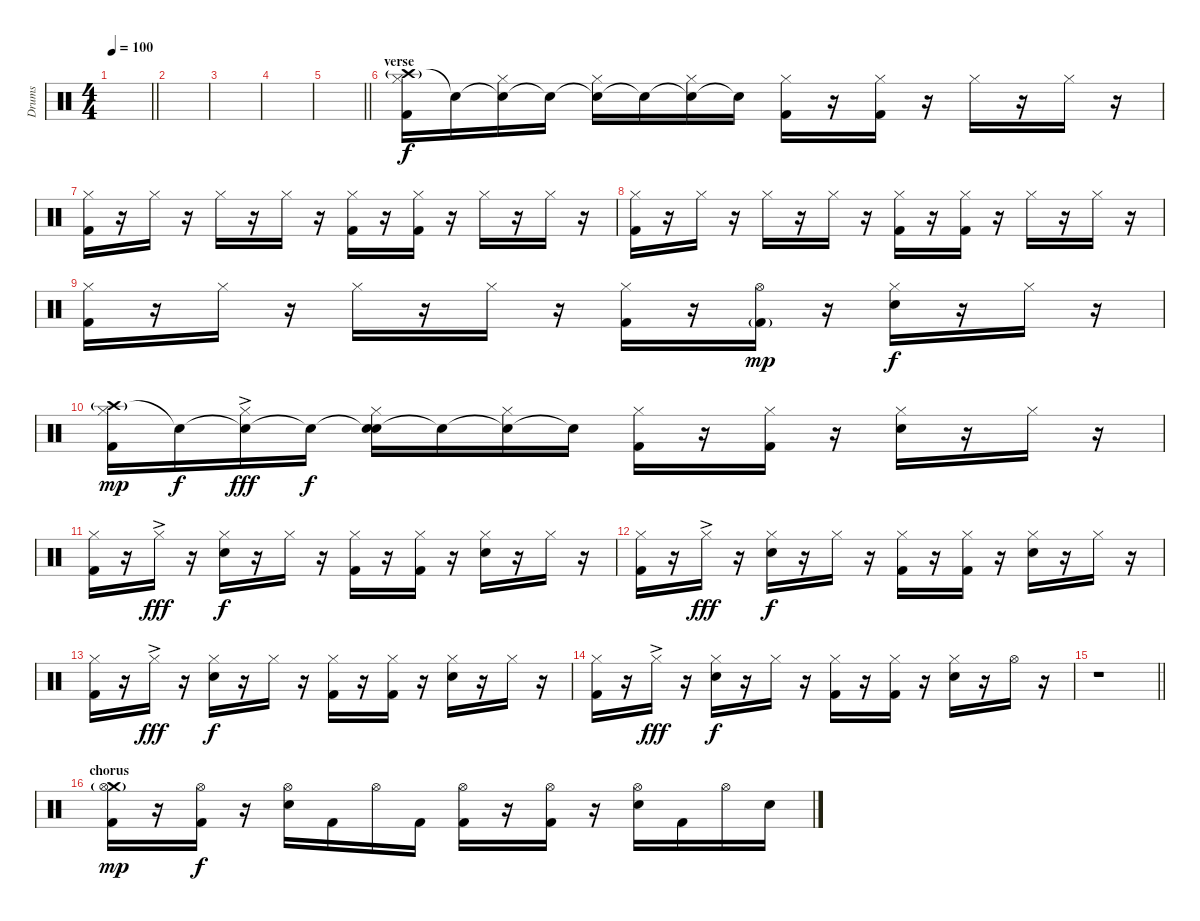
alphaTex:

\track ("Drums" "Drums") {instrument percussion}
\staff {score}
\articulation defaults
\ts (4 4)
\tempo 100
\clef neutral
\barLineRight lightlight
\ks c
|
|
|
|
\barLineRight lightlight
|
\section ("" "verse")
("Crash high (hit)"{g} "Hi-Hat (closed)" "Kick (hit) 2").16 "Snare (hit)"{t}.16{dy f} ("Snare (hit)"{t} "Hi-Hat (closed)").16 "Snare (hit)"{t}.16 ("Snare (hit)"{t} "Hi-Hat (closed)").16 "Snare (hit)"{t}.16 ("Snare (hit)"{t} "Hi-Hat (closed)").16 "Snare (hit)"{t}.16 ("Hi-Hat (closed)" "Kick (hit) 2").16 r.16 ("Hi-Hat (closed)" "Kick (hit) 2").16 r.16 "Hi-Hat (closed)".16 r.16 "Hi-Hat (closed)".16 r.16 |
("Hi-Hat (closed)" "Kick (hit) 2").16 r.16 "Hi-Hat (closed)".16 r.16 "Hi-Hat (closed)".16 r.16 "Hi-Hat (closed)".16 r.16 ("Hi-Hat (closed)" "Kick (hit) 2").16 r.16 ("Hi-Hat (closed)" "Kick (hit) 2").16 r.16 "Hi-Hat (closed)".16 r.16 "Hi-Hat (closed)".16 r.16 |
("Hi-Hat (closed)" "Kick (hit) 2").16 r.16 "Hi-Hat (closed)".16 r.16 "Hi-Hat (closed)".16 r.16 "Hi-Hat (closed)".16 r.16 ("Hi-Hat (closed)" "Kick (hit) 2").16 r.16 ("Hi-Hat (closed)" "Kick (hit) 2").16 r.16 "Hi-Hat (closed)".16 r.16 "Hi-Hat (closed)".16 r.16 |
("Hi-Hat (closed)" "Kick (hit) 2").16 r.16 "Hi-Hat (closed)".16 r.16 "Hi-Hat (closed)".16 r.16 "Hi-Hat (closed)".16 r.16 ("Hi-Hat (closed)" "Kick (hit) 2").16 r.16 ("Hi-Hat (open)" "Kick (hit) 2"{g}).16{dy mp} r.16 ("Hi-Hat (closed)" "Snare (hit) 2").16{dy f} r.16 "Hi-Hat (closed)".16 r.16 |
("Crash high (hit)"{g} "Hi-Hat (closed)" "Kick (hit) 2").16{dy mp} "Snare (hit)"{t}.16{dy f} ("Snare (hit)"{t} "Hi-Hat (closed)"{ac}).16{dy fff} "Snare (hit)"{t}.16{dy f} ("Snare (hit)"{t} "Hi-Hat (closed)" "Snare (hit) 2").16 "Snare (hit)"{t}.16 ("Snare (hit)"{t} "Hi-Hat (closed)").16 "Snare (hit)"{t}.16 ("Hi-Hat (closed)" "Kick (hit) 2").16 r.16 ("Hi-Hat (closed)" "Kick (hit) 2").16 r.16 ("Hi-Hat (closed)" "Snare (hit) 2").16 r.16 "Hi-Hat (closed)".16 r.16 |
("Hi-Hat (closed)" "Kick (hit) 2").16 r.16 "Hi-Hat (closed)"{ac}.16{dy fff} r.16 ("Hi-Hat (closed)" "Snare (hit) 2").16{dy f} r.16 "Hi-Hat (closed)".16 r.16 ("Hi-Hat (closed)" "Kick (hit) 2").16 r.16 ("Hi-Hat (closed)" "Kick (hit) 2").16 r.16 ("Hi-Hat (closed)" "Snare (hit) 2").16 r.16 "Hi-Hat (closed)".16 r.16 |
("Hi-Hat (closed)" "Kick (hit) 2").16 r.16 "Hi-Hat (closed)"{ac}.16{dy fff} r.16 ("Hi-Hat (closed)" "Snare (hit) 2").16{dy f} r.16 "Hi-Hat (closed)".16 r.16 ("Hi-Hat (closed)" "Kick (hit) 2").16 r.16 ("Hi-Hat (closed)" "Kick (hit) 2").16 r.16 ("Hi-Hat (closed)" "Snare (hit) 2").16 r.16 "Hi-Hat (closed)".16 r.16 |
("Hi-Hat (closed)" "Kick (hit) 2").16 r.16 "Hi-Hat (closed)"{ac}.16{dy fff} r.16 ("Hi-Hat (closed)" "Snare (hit) 2").16{dy f} r.16 "Hi-Hat (closed)".16 r.16 ("Hi-Hat (closed)" "Kick (hit) 2").16 r.16 ("Hi-Hat (closed)" "Kick (hit) 2").16 r.16 ("Hi-Hat (closed)" "Snare (hit) 2").16 r.16 "Hi-Hat (closed)".16 r.16 |
("Hi-Hat (closed)" "Kick (hit) 2").16 r.16 "Hi-Hat (closed)"{ac}.16{dy fff} r.16 ("Hi-Hat (closed)" "Snare (hit) 2").16{dy f} r.16 "Hi-Hat (closed)".16 r.16 ("Hi-Hat (closed)" "Kick (hit) 2").16 r.16 ("Hi-Hat (closed)" "Kick (hit) 2").16 r.16 ("Hi-Hat (closed)" "Snare (hit) 2").16 r.16 "Hi-Hat (open)".16 r.16 |
\barLineRight lightlight
r.1 |
\section ("" "chorus")
("Crash medium (hit)" "Hi-Hat (open)"{g} "Kick (hit) 2").16{dy mp} r.16 ("Hi-Hat (open)" "Kick (hit) 2").16{dy f} r.16 ("Hi-Hat (open)" "Snare (hit) 2").16 "Kick (hit) 2".16 "Hi-Hat (open)".16 "Kick (hit) 2".16 ("Hi-Hat (open)" "Kick (hit) 2").16 r.16 ("Hi-Hat (open)" "Kick (hit) 2").16 r.16 ("Hi-Hat (open)" "Snare (hit) 2").16 "Kick (hit) 2".16 "Hi-Hat (open)".16 "Snare (hit) 2".16
